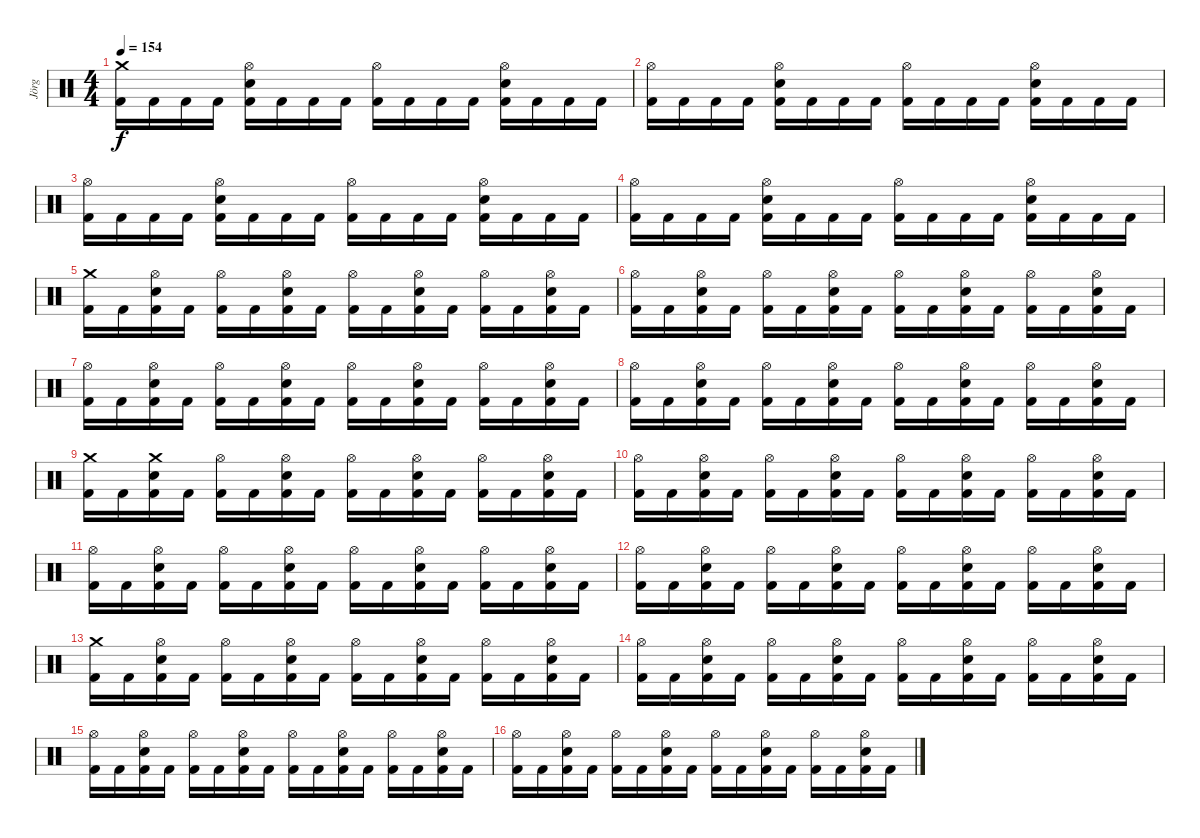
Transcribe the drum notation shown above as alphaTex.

\track ("Jörg" "Jörg") {instrument percussion}
\staff {score}
\articulation defaults
\ts (4 4)
\tempo 154
\clef neutral
\ks c
("Crash medium (hit)" "Kick (hit) 2").16{dy f} "Kick (hit) 2".16 "Kick (hit) 2".16 "Kick (hit) 2".16 ("Snare (hit) 2" "Hi-Hat (open)" "Kick (hit) 2").16 "Kick (hit) 2".16 "Kick (hit) 2".16 "Kick (hit) 2".16 ("Hi-Hat (open)" "Kick (hit) 2").16 "Kick (hit) 2".16 "Kick (hit) 2".16 "Kick (hit) 2".16 ("Snare (hit) 2" "Hi-Hat (open)" "Kick (hit) 2").16 "Kick (hit) 2".16 "Kick (hit) 2".16 "Kick (hit) 2".16 |
("Hi-Hat (open)" "Kick (hit) 2").16 "Kick (hit) 2".16 "Kick (hit) 2".16 "Kick (hit) 2".16 ("Snare (hit) 2" "Hi-Hat (open)" "Kick (hit) 2").16 "Kick (hit) 2".16 "Kick (hit) 2".16 "Kick (hit) 2".16 ("Hi-Hat (open)" "Kick (hit) 2").16 "Kick (hit) 2".16 "Kick (hit) 2".16 "Kick (hit) 2".16 ("Snare (hit) 2" "Hi-Hat (open)" "Kick (hit) 2").16 "Kick (hit) 2".16 "Kick (hit) 2".16 "Kick (hit) 2".16 |
("Hi-Hat (open)" "Kick (hit) 2").16 "Kick (hit) 2".16 "Kick (hit) 2".16 "Kick (hit) 2".16 ("Snare (hit) 2" "Hi-Hat (open)" "Kick (hit) 2").16 "Kick (hit) 2".16 "Kick (hit) 2".16 "Kick (hit) 2".16 ("Hi-Hat (open)" "Kick (hit) 2").16 "Kick (hit) 2".16 "Kick (hit) 2".16 "Kick (hit) 2".16 ("Snare (hit) 2" "Hi-Hat (open)" "Kick (hit) 2").16 "Kick (hit) 2".16 "Kick (hit) 2".16 "Kick (hit) 2".16 |
("Hi-Hat (open)" "Kick (hit) 2").16 "Kick (hit) 2".16 "Kick (hit) 2".16 "Kick (hit) 2".16 ("Snare (hit) 2" "Hi-Hat (open)" "Kick (hit) 2").16 "Kick (hit) 2".16 "Kick (hit) 2".16 "Kick (hit) 2".16 ("Hi-Hat (open)" "Kick (hit) 2").16 "Kick (hit) 2".16 "Kick (hit) 2".16 "Kick (hit) 2".16 ("Snare (hit) 2" "Hi-Hat (open)" "Kick (hit) 2").16 "Kick (hit) 2".16 "Kick (hit) 2".16 "Kick (hit) 2".16 |
("Crash medium (hit)" "Kick (hit) 2").16 "Kick (hit) 2".16 ("Snare (hit) 2" "Hi-Hat (open)" "Kick (hit) 2").16 "Kick (hit) 2".16 ("Hi-Hat (open)" "Kick (hit) 2").16 "Kick (hit) 2".16 ("Snare (hit) 2" "Hi-Hat (open)" "Kick (hit) 2").16 "Kick (hit) 2".16 ("Hi-Hat (open)" "Kick (hit) 2").16 "Kick (hit) 2".16 ("Snare (hit) 2" "Hi-Hat (open)" "Kick (hit) 2").16 "Kick (hit) 2".16 ("Hi-Hat (open)" "Kick (hit) 2").16 "Kick (hit) 2".16 ("Snare (hit) 2" "Hi-Hat (open)" "Kick (hit) 2").16 "Kick (hit) 2".16 |
("Hi-Hat (open)" "Kick (hit) 2").16 "Kick (hit) 2".16 ("Snare (hit) 2" "Hi-Hat (open)" "Kick (hit) 2").16 "Kick (hit) 2".16 ("Hi-Hat (open)" "Kick (hit) 2").16 "Kick (hit) 2".16 ("Snare (hit) 2" "Hi-Hat (open)" "Kick (hit) 2").16 "Kick (hit) 2".16 ("Hi-Hat (open)" "Kick (hit) 2").16 "Kick (hit) 2".16 ("Snare (hit) 2" "Hi-Hat (open)" "Kick (hit) 2").16 "Kick (hit) 2".16 ("Hi-Hat (open)" "Kick (hit) 2").16 "Kick (hit) 2".16 ("Snare (hit) 2" "Hi-Hat (open)" "Kick (hit) 2").16 "Kick (hit) 2".16 |
("Hi-Hat (open)" "Kick (hit) 2").16 "Kick (hit) 2".16 ("Snare (hit) 2" "Hi-Hat (open)" "Kick (hit) 2").16 "Kick (hit) 2".16 ("Hi-Hat (open)" "Kick (hit) 2").16 "Kick (hit) 2".16 ("Snare (hit) 2" "Hi-Hat (open)" "Kick (hit) 2").16 "Kick (hit) 2".16 ("Hi-Hat (open)" "Kick (hit) 2").16 "Kick (hit) 2".16 ("Snare (hit) 2" "Hi-Hat (open)" "Kick (hit) 2").16 "Kick (hit) 2".16 ("Hi-Hat (open)" "Kick (hit) 2").16 "Kick (hit) 2".16 ("Snare (hit) 2" "Hi-Hat (open)" "Kick (hit) 2").16 "Kick (hit) 2".16 |
("Hi-Hat (open)" "Kick (hit) 2").16 "Kick (hit) 2".16 ("Snare (hit) 2" "Hi-Hat (open)" "Kick (hit) 2").16 "Kick (hit) 2".16 ("Hi-Hat (open)" "Kick (hit) 2").16 "Kick (hit) 2".16 ("Snare (hit) 2" "Hi-Hat (open)" "Kick (hit) 2").16 "Kick (hit) 2".16 ("Hi-Hat (open)" "Kick (hit) 2").16 "Kick (hit) 2".16 ("Snare (hit) 2" "Hi-Hat (open)" "Kick (hit) 2").16 "Kick (hit) 2".16 ("Hi-Hat (open)" "Kick (hit) 2").16 "Kick (hit) 2".16 ("Snare (hit) 2" "Hi-Hat (open)" "Kick (hit) 2").16 "Kick (hit) 2".16 |
("Crash medium (hit)" "Kick (hit) 2").16 "Kick (hit) 2".16 ("Crash medium (hit)" "Snare (hit) 2" "Kick (hit) 2").16 "Kick (hit) 2".16 ("Hi-Hat (open)" "Kick (hit) 2").16 "Kick (hit) 2".16 ("Snare (hit) 2" "Hi-Hat (open)" "Kick (hit) 2").16 "Kick (hit) 2".16 ("Hi-Hat (open)" "Kick (hit) 2").16 "Kick (hit) 2".16 ("Snare (hit) 2" "Hi-Hat (open)" "Kick (hit) 2").16 "Kick (hit) 2".16 ("Hi-Hat (open)" "Kick (hit) 2").16 "Kick (hit) 2".16 ("Snare (hit) 2" "Hi-Hat (open)" "Kick (hit) 2").16 "Kick (hit) 2".16 |
("Hi-Hat (open)" "Kick (hit) 2").16 "Kick (hit) 2".16 ("Snare (hit) 2" "Hi-Hat (open)" "Kick (hit) 2").16 "Kick (hit) 2".16 ("Hi-Hat (open)" "Kick (hit) 2").16 "Kick (hit) 2".16 ("Snare (hit) 2" "Hi-Hat (open)" "Kick (hit) 2").16 "Kick (hit) 2".16 ("Hi-Hat (open)" "Kick (hit) 2").16 "Kick (hit) 2".16 ("Snare (hit) 2" "Hi-Hat (open)" "Kick (hit) 2").16 "Kick (hit) 2".16 ("Hi-Hat (open)" "Kick (hit) 2").16 "Kick (hit) 2".16 ("Snare (hit) 2" "Hi-Hat (open)" "Kick (hit) 2").16 "Kick (hit) 2".16 |
("Hi-Hat (open)" "Kick (hit) 2").16 "Kick (hit) 2".16 ("Snare (hit) 2" "Hi-Hat (open)" "Kick (hit) 2").16 "Kick (hit) 2".16 ("Hi-Hat (open)" "Kick (hit) 2").16 "Kick (hit) 2".16 ("Snare (hit) 2" "Hi-Hat (open)" "Kick (hit) 2").16 "Kick (hit) 2".16 ("Hi-Hat (open)" "Kick (hit) 2").16 "Kick (hit) 2".16 ("Snare (hit) 2" "Hi-Hat (open)" "Kick (hit) 2").16 "Kick (hit) 2".16 ("Hi-Hat (open)" "Kick (hit) 2").16 "Kick (hit) 2".16 ("Snare (hit) 2" "Hi-Hat (open)" "Kick (hit) 2").16 "Kick (hit) 2".16 |
("Hi-Hat (open)" "Kick (hit) 2").16 "Kick (hit) 2".16 ("Snare (hit) 2" "Hi-Hat (open)" "Kick (hit) 2").16 "Kick (hit) 2".16 ("Hi-Hat (open)" "Kick (hit) 2").16 "Kick (hit) 2".16 ("Snare (hit) 2" "Hi-Hat (open)" "Kick (hit) 2").16 "Kick (hit) 2".16 ("Hi-Hat (open)" "Kick (hit) 2").16 "Kick (hit) 2".16 ("Snare (hit) 2" "Hi-Hat (open)" "Kick (hit) 2").16 "Kick (hit) 2".16 ("Hi-Hat (open)" "Kick (hit) 2").16 "Kick (hit) 2".16 ("Snare (hit) 2" "Hi-Hat (open)" "Kick (hit) 2").16 "Kick (hit) 2".16 |
("Crash medium (hit)" "Kick (hit) 2").16 "Kick (hit) 2".16 ("Snare (hit) 2" "Hi-Hat (open)" "Kick (hit) 2").16 "Kick (hit) 2".16 ("Hi-Hat (open)" "Kick (hit) 2").16 "Kick (hit) 2".16 ("Snare (hit) 2" "Hi-Hat (open)" "Kick (hit) 2").16 "Kick (hit) 2".16 ("Hi-Hat (open)" "Kick (hit) 2").16 "Kick (hit) 2".16 ("Snare (hit) 2" "Hi-Hat (open)" "Kick (hit) 2").16 "Kick (hit) 2".16 ("Hi-Hat (open)" "Kick (hit) 2").16 "Kick (hit) 2".16 ("Snare (hit) 2" "Hi-Hat (open)" "Kick (hit) 2").16 "Kick (hit) 2".16 |
("Hi-Hat (open)" "Kick (hit) 2").16 "Kick (hit) 2".16 ("Snare (hit) 2" "Hi-Hat (open)" "Kick (hit) 2").16 "Kick (hit) 2".16 ("Hi-Hat (open)" "Kick (hit) 2").16 "Kick (hit) 2".16 ("Snare (hit) 2" "Hi-Hat (open)" "Kick (hit) 2").16 "Kick (hit) 2".16 ("Hi-Hat (open)" "Kick (hit) 2").16 "Kick (hit) 2".16 ("Snare (hit) 2" "Hi-Hat (open)" "Kick (hit) 2").16 "Kick (hit) 2".16 ("Hi-Hat (open)" "Kick (hit) 2").16 "Kick (hit) 2".16 ("Snare (hit) 2" "Hi-Hat (open)" "Kick (hit) 2").16 "Kick (hit) 2".16 |
("Hi-Hat (open)" "Kick (hit) 2").16 "Kick (hit) 2".16 ("Snare (hit) 2" "Hi-Hat (open)" "Kick (hit) 2").16 "Kick (hit) 2".16 ("Hi-Hat (open)" "Kick (hit) 2").16 "Kick (hit) 2".16 ("Snare (hit) 2" "Hi-Hat (open)" "Kick (hit) 2").16 "Kick (hit) 2".16 ("Hi-Hat (open)" "Kick (hit) 2").16 "Kick (hit) 2".16 ("Snare (hit) 2" "Hi-Hat (open)" "Kick (hit) 2").16 "Kick (hit) 2".16 ("Hi-Hat (open)" "Kick (hit) 2").16 "Kick (hit) 2".16 ("Snare (hit) 2" "Hi-Hat (open)" "Kick (hit) 2").16 "Kick (hit) 2".16 |
("Hi-Hat (open)" "Kick (hit) 2").16 "Kick (hit) 2".16 ("Snare (hit) 2" "Hi-Hat (open)" "Kick (hit) 2").16 "Kick (hit) 2".16 ("Hi-Hat (open)" "Kick (hit) 2").16 "Kick (hit) 2".16 ("Snare (hit) 2" "Hi-Hat (open)" "Kick (hit) 2").16 "Kick (hit) 2".16 ("Hi-Hat (open)" "Kick (hit) 2").16 "Kick (hit) 2".16 ("Snare (hit) 2" "Hi-Hat (open)" "Kick (hit) 2").16 "Kick (hit) 2".16 ("Hi-Hat (open)" "Kick (hit) 2").16 "Kick (hit) 2".16 ("Snare (hit) 2" "Hi-Hat (open)" "Kick (hit) 2").16 "Kick (hit) 2".16
